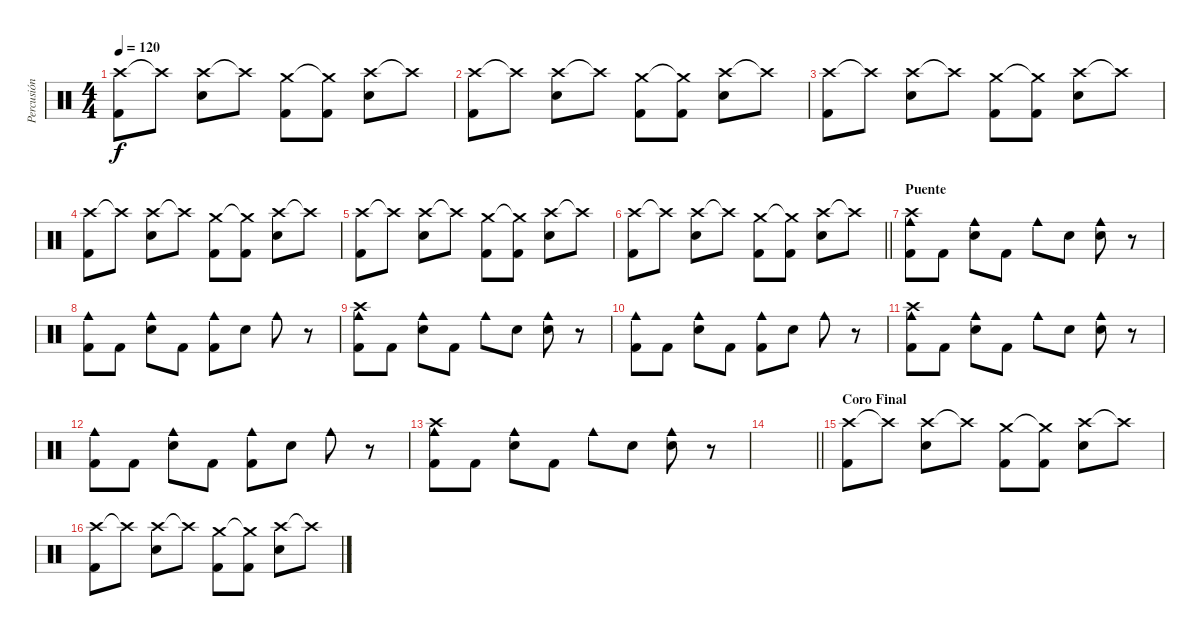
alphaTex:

\track ("Percusión" "Percusión") {instrument percussion}
\staff {score}
\articulation defaults
\ts (4 4)
\tempo 120
\clef neutral
\ks c
("Crash high (hit)" "Kick (hit) 2").8{dy f} "Crash high (hit)"{t}.8 ("Crash high (hit)" "Snare (hit) 2").8 "Crash high (hit)"{t}.8 ("Crash medium (hit)" "Kick (hit) 2").8 ("Crash medium (hit)"{t} "Kick (hit) 2").8 ("Crash high (hit)" "Snare (hit) 2").8 "Crash high (hit)"{t}.8 |
("Crash high (hit)" "Kick (hit) 2").8 "Crash high (hit)"{t}.8 ("Crash high (hit)" "Snare (hit) 2").8 "Crash high (hit)"{t}.8 ("Crash medium (hit)" "Kick (hit) 2").8 ("Crash medium (hit)"{t} "Kick (hit) 2").8 ("Crash high (hit)" "Snare (hit) 2").8 "Crash high (hit)"{t}.8 |
("Crash high (hit)" "Kick (hit) 2").8 "Crash high (hit)"{t}.8 ("Crash high (hit)" "Snare (hit) 2").8 "Crash high (hit)"{t}.8 ("Crash medium (hit)" "Kick (hit) 2").8 ("Crash medium (hit)"{t} "Kick (hit) 2").8 ("Crash high (hit)" "Snare (hit) 2").8 "Crash high (hit)"{t}.8 |
("Crash high (hit)" "Kick (hit) 2").8 "Crash high (hit)"{t}.8 ("Crash high (hit)" "Snare (hit) 2").8 "Crash high (hit)"{t}.8 ("Crash medium (hit)" "Kick (hit) 2").8 ("Crash medium (hit)"{t} "Kick (hit) 2").8 ("Crash high (hit)" "Snare (hit) 2").8 "Crash high (hit)"{t}.8 |
("Crash high (hit)" "Kick (hit) 2").8 "Crash high (hit)"{t}.8 ("Crash high (hit)" "Snare (hit) 2").8 "Crash high (hit)"{t}.8 ("Crash medium (hit)" "Kick (hit) 2").8 ("Crash medium (hit)"{t} "Kick (hit) 2").8 ("Crash high (hit)" "Snare (hit) 2").8 "Crash high (hit)"{t}.8 |
\barLineRight lightlight
("Crash high (hit)" "Kick (hit) 2").8 "Crash high (hit)"{t}.8 ("Crash high (hit)" "Snare (hit) 2").8 "Crash high (hit)"{t}.8 ("Crash medium (hit)" "Kick (hit) 2").8 ("Crash medium (hit)"{t} "Kick (hit) 2").8 ("Crash high (hit)" "Snare (hit) 2").8 "Crash high (hit)"{t}.8 |
\section ("" "Puente")
("Crash high (hit)" "Cowbell medium (hit)" "Kick (hit) 2").8{volume 16} "Kick (hit) 2".8 ("Cowbell medium (hit)" "Snare (hit) 2").8 "Kick (hit) 2".8 "Cowbell medium (hit)".8 "Snare (hit) 2".8 ("Cowbell medium (hit)" "Snare (hit) 2").8 r.8 |
("Cowbell medium (hit)" "Kick (hit) 2").8 "Kick (hit) 2".8 ("Cowbell medium (hit)" "Snare (hit) 2").8 "Kick (hit) 2".8 ("Cowbell medium (hit)" "Kick (hit) 2").8 "Snare (hit) 2".8 "Cowbell medium (hit)".8 r.8 |
("Crash high (hit)" "Cowbell medium (hit)" "Kick (hit) 2").8 "Kick (hit) 2".8 ("Cowbell medium (hit)" "Snare (hit) 2").8 "Kick (hit) 2".8 "Cowbell medium (hit)".8 "Snare (hit) 2".8 ("Cowbell medium (hit)" "Snare (hit) 2").8 r.8 |
("Cowbell medium (hit)" "Kick (hit) 2").8 "Kick (hit) 2".8 ("Cowbell medium (hit)" "Snare (hit) 2").8 "Kick (hit) 2".8 ("Cowbell medium (hit)" "Kick (hit) 2").8 "Snare (hit) 2".8 "Cowbell medium (hit)".8 r.8 |
("Crash high (hit)" "Cowbell medium (hit)" "Kick (hit) 2").8 "Kick (hit) 2".8 ("Cowbell medium (hit)" "Snare (hit) 2").8 "Kick (hit) 2".8 "Cowbell medium (hit)".8 "Snare (hit) 2".8 ("Cowbell medium (hit)" "Snare (hit) 2").8 r.8 |
("Cowbell medium (hit)" "Kick (hit) 2").8 "Kick (hit) 2".8 ("Cowbell medium (hit)" "Snare (hit) 2").8 "Kick (hit) 2".8 ("Cowbell medium (hit)" "Kick (hit) 2").8 "Snare (hit) 2".8 "Cowbell medium (hit)".8 r.8 |
("Crash high (hit)" "Cowbell medium (hit)" "Kick (hit) 2").8 "Kick (hit) 2".8 ("Cowbell medium (hit)" "Snare (hit) 2").8 "Kick (hit) 2".8 "Cowbell medium (hit)".8 "Snare (hit) 2".8 ("Cowbell medium (hit)" "Snare (hit) 2").8 r.8 |
\barLineRight lightlight
|
\section ("" "Coro Final")
("Crash high (hit)" "Kick (hit) 2").8 "Crash high (hit)"{t}.8 ("Crash high (hit)" "Snare (hit) 2").8 "Crash high (hit)"{t}.8 ("Crash medium (hit)" "Kick (hit) 2").8 ("Crash medium (hit)"{t} "Kick (hit) 2").8 ("Crash high (hit)" "Snare (hit) 2").8 "Crash high (hit)"{t}.8 |
("Crash high (hit)" "Kick (hit) 2").8 "Crash high (hit)"{t}.8 ("Crash high (hit)" "Snare (hit) 2").8 "Crash high (hit)"{t}.8 ("Crash medium (hit)" "Kick (hit) 2").8 ("Crash medium (hit)"{t} "Kick (hit) 2").8 ("Crash high (hit)" "Snare (hit) 2").8 "Crash high (hit)"{t}.8
